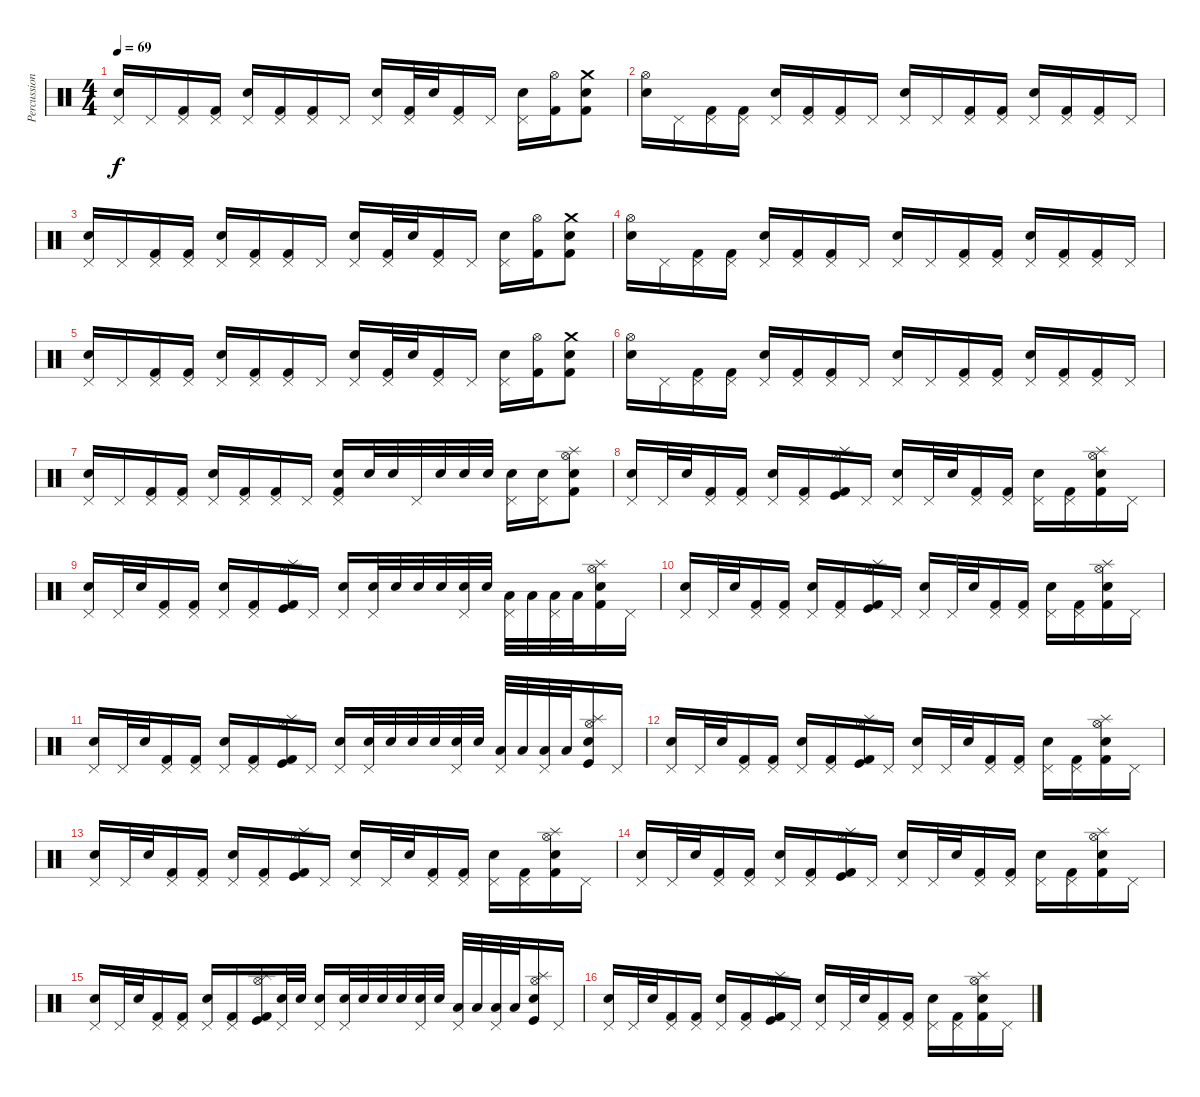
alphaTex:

\track ("Percussion" "Percussion") {instrument percussion}
\staff {score}
\articulation defaults
\ts (4 4)
\tempo 69
\clef neutral
\ks c
("Pedal Hi-Hat (hit)" "Snare (hit) 2").16{dy f} "Pedal Hi-Hat (hit)".16 ("Pedal Hi-Hat (hit)" "Kick (hit) 2").16 ("Pedal Hi-Hat (hit)" "Kick (hit) 2").16 ("Pedal Hi-Hat (hit)" "Snare (hit) 2").16 ("Pedal Hi-Hat (hit)" "Kick (hit) 2").16 ("Pedal Hi-Hat (hit)" "Kick (hit) 2").16 "Pedal Hi-Hat (hit)".16 ("Pedal Hi-Hat (hit)" "Snare (hit) 2").16 ("Pedal Hi-Hat (hit)" "Kick (hit) 2").32 "Snare (hit) 2".32 ("Pedal Hi-Hat (hit)" "Kick (hit) 2").16 "Pedal Hi-Hat (hit)".16 ("Pedal Hi-Hat (hit)" "Snare (hit) 2").16 ("Hi-Hat (open)" "Kick (hit) 2").16 ("Crash medium (hit)" "Snare (hit) 2" "Kick (hit) 2").8 |
("Hi-Hat (open)" "Snare (hit) 2").16 "Pedal Hi-Hat (hit)".16 ("Pedal Hi-Hat (hit)" "Kick (hit) 2").16 ("Pedal Hi-Hat (hit)" "Kick (hit) 2").16 ("Pedal Hi-Hat (hit)" "Snare (hit) 2").16 ("Pedal Hi-Hat (hit)" "Kick (hit) 2").16 ("Pedal Hi-Hat (hit)" "Kick (hit) 2").16 "Pedal Hi-Hat (hit)".16 ("Pedal Hi-Hat (hit)" "Snare (hit) 2").16 "Pedal Hi-Hat (hit)".16 ("Pedal Hi-Hat (hit)" "Kick (hit) 2").16 ("Pedal Hi-Hat (hit)" "Kick (hit) 2").16 ("Pedal Hi-Hat (hit)" "Snare (hit) 2").16 ("Pedal Hi-Hat (hit)" "Kick (hit) 2").16 ("Pedal Hi-Hat (hit)" "Kick (hit) 2").16 "Pedal Hi-Hat (hit)".16 |
("Pedal Hi-Hat (hit)" "Snare (hit) 2").16 "Pedal Hi-Hat (hit)".16 ("Pedal Hi-Hat (hit)" "Kick (hit) 2").16 ("Pedal Hi-Hat (hit)" "Kick (hit) 2").16 ("Pedal Hi-Hat (hit)" "Snare (hit) 2").16 ("Pedal Hi-Hat (hit)" "Kick (hit) 2").16 ("Pedal Hi-Hat (hit)" "Kick (hit) 2").16 "Pedal Hi-Hat (hit)".16 ("Pedal Hi-Hat (hit)" "Snare (hit) 2").16 ("Pedal Hi-Hat (hit)" "Kick (hit) 2").32 "Snare (hit) 2".32 ("Pedal Hi-Hat (hit)" "Kick (hit) 2").16 "Pedal Hi-Hat (hit)".16 ("Pedal Hi-Hat (hit)" "Snare (hit) 2").16 ("Hi-Hat (open)" "Kick (hit) 2").16 ("Crash medium (hit)" "Snare (hit) 2" "Kick (hit) 2").8 |
("Hi-Hat (open)" "Snare (hit) 2").16 "Pedal Hi-Hat (hit)".16 ("Pedal Hi-Hat (hit)" "Kick (hit) 2").16 ("Pedal Hi-Hat (hit)" "Kick (hit) 2").16 ("Pedal Hi-Hat (hit)" "Snare (hit) 2").16 ("Pedal Hi-Hat (hit)" "Kick (hit) 2").16 ("Pedal Hi-Hat (hit)" "Kick (hit) 2").16 "Pedal Hi-Hat (hit)".16 ("Pedal Hi-Hat (hit)" "Snare (hit) 2").16 "Pedal Hi-Hat (hit)".16 ("Pedal Hi-Hat (hit)" "Kick (hit) 2").16 ("Pedal Hi-Hat (hit)" "Kick (hit) 2").16 ("Pedal Hi-Hat (hit)" "Snare (hit) 2").16 ("Pedal Hi-Hat (hit)" "Kick (hit) 2").16 ("Pedal Hi-Hat (hit)" "Kick (hit) 2").16 "Pedal Hi-Hat (hit)".16 |
("Pedal Hi-Hat (hit)" "Snare (hit) 2").16 "Pedal Hi-Hat (hit)".16 ("Pedal Hi-Hat (hit)" "Kick (hit) 2").16 ("Pedal Hi-Hat (hit)" "Kick (hit) 2").16 ("Pedal Hi-Hat (hit)" "Snare (hit) 2").16 ("Pedal Hi-Hat (hit)" "Kick (hit) 2").16 ("Pedal Hi-Hat (hit)" "Kick (hit) 2").16 "Pedal Hi-Hat (hit)".16 ("Pedal Hi-Hat (hit)" "Snare (hit) 2").16 ("Pedal Hi-Hat (hit)" "Kick (hit) 2").32 "Snare (hit) 2".32 ("Pedal Hi-Hat (hit)" "Kick (hit) 2").16 "Pedal Hi-Hat (hit)".16 ("Pedal Hi-Hat (hit)" "Snare (hit) 2").16 ("Hi-Hat (open)" "Kick (hit) 2").16 ("Crash medium (hit)" "Snare (hit) 2" "Kick (hit) 2").8 |
("Hi-Hat (open)" "Snare (hit) 2").16 "Pedal Hi-Hat (hit)".16 ("Pedal Hi-Hat (hit)" "Kick (hit) 2").16 ("Pedal Hi-Hat (hit)" "Kick (hit) 2").16 ("Pedal Hi-Hat (hit)" "Snare (hit) 2").16 ("Pedal Hi-Hat (hit)" "Kick (hit) 2").16 ("Pedal Hi-Hat (hit)" "Kick (hit) 2").16 "Pedal Hi-Hat (hit)".16 ("Pedal Hi-Hat (hit)" "Snare (hit) 2").16 "Pedal Hi-Hat (hit)".16 ("Pedal Hi-Hat (hit)" "Kick (hit) 2").16 ("Pedal Hi-Hat (hit)" "Kick (hit) 2").16 ("Pedal Hi-Hat (hit)" "Snare (hit) 2").16 ("Pedal Hi-Hat (hit)" "Kick (hit) 2").16 ("Pedal Hi-Hat (hit)" "Kick (hit) 2").16 "Pedal Hi-Hat (hit)".16 |
("Pedal Hi-Hat (hit)" "Snare (hit) 2").16 "Pedal Hi-Hat (hit)".16 ("Pedal Hi-Hat (hit)" "Kick (hit) 2").16 ("Pedal Hi-Hat (hit)" "Kick (hit) 2").16 ("Pedal Hi-Hat (hit)" "Snare (hit) 2").16 ("Pedal Hi-Hat (hit)" "Kick (hit) 2").16 ("Pedal Hi-Hat (hit)" "Kick (hit) 2").16 "Pedal Hi-Hat (hit)".16 ("Pedal Hi-Hat (hit)" "Snare (hit) 2" "Kick (hit) 2").16 "Snare (hit) 2".32 "Snare (hit) 2".32 "Pedal Hi-Hat (hit)".32 "Snare (hit) 2".32 "Snare (hit) 2".32 "Snare (hit) 2".32 ("Pedal Hi-Hat (hit)" "Snare (hit) 2").16 ("Pedal Hi-Hat (hit)" "Snare (hit) 2").16 ("Splash (hit)" "Hi-Hat (open)" "Snare (hit) 2" "Kick (hit) 2").8 |
("Pedal Hi-Hat (hit)" "Snare (hit) 2").16 "Pedal Hi-Hat (hit)".32 "Snare (hit) 2".32 ("Pedal Hi-Hat (hit)" "Kick (hit) 2").16 ("Pedal Hi-Hat (hit)" "Kick (hit) 2").16 ("Pedal Hi-Hat (hit)" "Snare (hit) 2").16 ("Pedal Hi-Hat (hit)" "Kick (hit) 2").16 ("Splash (hit)" "Hi-Hat (open)" "Kick (hit)" "Kick (hit) 2").16 "Pedal Hi-Hat (hit)".16 ("Pedal Hi-Hat (hit)" "Snare (hit) 2").16 "Pedal Hi-Hat (hit)".32 "Snare (hit) 2".32 ("Pedal Hi-Hat (hit)" "Kick (hit) 2").16 ("Pedal Hi-Hat (hit)" "Kick (hit) 2").16 ("Pedal Hi-Hat (hit)" "Snare (hit) 2").16 ("Pedal Hi-Hat (hit)" "Kick (hit) 2").16 ("Splash (hit)" "Hi-Hat (open)" "Snare (hit) 2" "Kick (hit) 2").16 "Pedal Hi-Hat (hit)".16 |
("Pedal Hi-Hat (hit)" "Snare (hit) 2").16 "Pedal Hi-Hat (hit)".32 "Snare (hit) 2".32 ("Pedal Hi-Hat (hit)" "Kick (hit) 2").16 ("Pedal Hi-Hat (hit)" "Kick (hit) 2").16 ("Pedal Hi-Hat (hit)" "Snare (hit) 2").16 ("Pedal Hi-Hat (hit)" "Kick (hit) 2").16 ("Splash (hit)" "Hi-Hat (open)" "Kick (hit)" "Kick (hit) 2").16 "Pedal Hi-Hat (hit)".16 ("Pedal Hi-Hat (hit)" "Snare (hit) 2").16 ("Pedal Hi-Hat (hit)" "Snare (hit) 2").32 "Snare (hit) 2".32 "Snare (hit) 2".32 "Snare (hit) 2".32 ("Pedal Hi-Hat (hit)" "Snare (hit) 2").32 "Snare (hit) 2".32 ("Pedal Hi-Hat (hit)" "Low Floor Tom (hit)").32 "Low Floor Tom (hit)".32 ("Pedal Hi-Hat (hit)" "Low Floor Tom (hit)").32 "Low Floor Tom (hit)".32 ("Splash (hit)" "Hi-Hat (open)" "Snare (hit) 2" "Kick (hit) 2").16 "Pedal Hi-Hat (hit)".16 |
("Pedal Hi-Hat (hit)" "Snare (hit) 2").16 "Pedal Hi-Hat (hit)".32 "Snare (hit) 2".32 ("Pedal Hi-Hat (hit)" "Kick (hit) 2").16 ("Pedal Hi-Hat (hit)" "Kick (hit) 2").16 ("Pedal Hi-Hat (hit)" "Snare (hit) 2").16 ("Pedal Hi-Hat (hit)" "Kick (hit) 2").16 ("Splash (hit)" "Hi-Hat (open)" "Kick (hit)" "Kick (hit) 2").16 "Pedal Hi-Hat (hit)".16 ("Pedal Hi-Hat (hit)" "Snare (hit) 2").16 "Pedal Hi-Hat (hit)".32 "Snare (hit) 2".32 ("Pedal Hi-Hat (hit)" "Kick (hit) 2").16 ("Pedal Hi-Hat (hit)" "Kick (hit) 2").16 ("Pedal Hi-Hat (hit)" "Snare (hit) 2").16 ("Pedal Hi-Hat (hit)" "Kick (hit) 2").16 ("Splash (hit)" "Hi-Hat (open)" "Snare (hit) 2" "Kick (hit) 2").16 "Pedal Hi-Hat (hit)".16 |
("Pedal Hi-Hat (hit)" "Snare (hit) 2").16 "Pedal Hi-Hat (hit)".32 "Snare (hit) 2".32 ("Pedal Hi-Hat (hit)" "Kick (hit) 2").16 ("Pedal Hi-Hat (hit)" "Kick (hit) 2").16 ("Pedal Hi-Hat (hit)" "Snare (hit) 2").16 ("Pedal Hi-Hat (hit)" "Kick (hit) 2").16 ("Splash (hit)" "Hi-Hat (open)" "Kick (hit)" "Kick (hit) 2").16 "Pedal Hi-Hat (hit)".16 ("Pedal Hi-Hat (hit)" "Snare (hit) 2").16 ("Pedal Hi-Hat (hit)" "Snare (hit) 2").32 "Snare (hit) 2".32 "Snare (hit) 2".32 "Snare (hit) 2".32 ("Pedal Hi-Hat (hit)" "Snare (hit) 2").32 "Snare (hit) 2".32 ("Pedal Hi-Hat (hit)" "Low Floor Tom (hit)").32 "Low Floor Tom (hit)".32 ("Pedal Hi-Hat (hit)" "Low Floor Tom (hit)").32 "Low Floor Tom (hit)".32 ("Splash (hit)" "Hi-Hat (open)" "Snare (hit) 2" "Kick (hit)").16 "Pedal Hi-Hat (hit)".16 |
("Pedal Hi-Hat (hit)" "Snare (hit) 2").16 "Pedal Hi-Hat (hit)".32 "Snare (hit) 2".32 ("Pedal Hi-Hat (hit)" "Kick (hit) 2").16 ("Pedal Hi-Hat (hit)" "Kick (hit) 2").16 ("Pedal Hi-Hat (hit)" "Snare (hit) 2").16 ("Pedal Hi-Hat (hit)" "Kick (hit) 2").16 ("Splash (hit)" "Hi-Hat (open)" "Kick (hit)" "Kick (hit) 2").16 "Pedal Hi-Hat (hit)".16 ("Pedal Hi-Hat (hit)" "Snare (hit) 2").16 "Pedal Hi-Hat (hit)".32 "Snare (hit) 2".32 ("Pedal Hi-Hat (hit)" "Kick (hit) 2").16 ("Pedal Hi-Hat (hit)" "Kick (hit) 2").16 ("Pedal Hi-Hat (hit)" "Snare (hit) 2").16 ("Pedal Hi-Hat (hit)" "Kick (hit) 2").16 ("Splash (hit)" "Hi-Hat (open)" "Snare (hit) 2" "Kick (hit) 2").16 "Pedal Hi-Hat (hit)".16 |
("Pedal Hi-Hat (hit)" "Snare (hit) 2").16 "Pedal Hi-Hat (hit)".32 "Snare (hit) 2".32 ("Pedal Hi-Hat (hit)" "Kick (hit) 2").16 ("Pedal Hi-Hat (hit)" "Kick (hit) 2").16 ("Pedal Hi-Hat (hit)" "Snare (hit) 2").16 ("Pedal Hi-Hat (hit)" "Kick (hit) 2").16 ("Splash (hit)" "Hi-Hat (open)" "Kick (hit)" "Kick (hit) 2").16 "Pedal Hi-Hat (hit)".16 ("Pedal Hi-Hat (hit)" "Snare (hit) 2").16 "Pedal Hi-Hat (hit)".32 "Snare (hit) 2".32 ("Pedal Hi-Hat (hit)" "Kick (hit) 2").16 ("Pedal Hi-Hat (hit)" "Kick (hit) 2").16 ("Pedal Hi-Hat (hit)" "Snare (hit) 2").16 ("Pedal Hi-Hat (hit)" "Kick (hit) 2").16 ("Splash (hit)" "Hi-Hat (open)" "Snare (hit) 2" "Kick (hit) 2").16 "Pedal Hi-Hat (hit)".16 |
("Pedal Hi-Hat (hit)" "Snare (hit) 2").16 "Pedal Hi-Hat (hit)".32 "Snare (hit) 2".32 ("Pedal Hi-Hat (hit)" "Kick (hit) 2").16 ("Pedal Hi-Hat (hit)" "Kick (hit) 2").16 ("Pedal Hi-Hat (hit)" "Snare (hit) 2").16 ("Pedal Hi-Hat (hit)" "Kick (hit) 2").16 ("Splash (hit)" "Hi-Hat (open)" "Kick (hit)" "Kick (hit) 2").16 "Pedal Hi-Hat (hit)".16 ("Pedal Hi-Hat (hit)" "Snare (hit) 2").16 "Pedal Hi-Hat (hit)".32 "Snare (hit) 2".32 ("Pedal Hi-Hat (hit)" "Kick (hit) 2").16 ("Pedal Hi-Hat (hit)" "Kick (hit) 2").16 ("Pedal Hi-Hat (hit)" "Snare (hit) 2").16 ("Pedal Hi-Hat (hit)" "Kick (hit) 2").16 ("Splash (hit)" "Hi-Hat (open)" "Snare (hit) 2" "Kick (hit) 2").16 "Pedal Hi-Hat (hit)".16 |
("Pedal Hi-Hat (hit)" "Snare (hit) 2").16 "Pedal Hi-Hat (hit)".32 "Snare (hit) 2".32 ("Pedal Hi-Hat (hit)" "Kick (hit) 2").16 ("Pedal Hi-Hat (hit)" "Kick (hit) 2").16 ("Pedal Hi-Hat (hit)" "Snare (hit) 2").16 ("Pedal Hi-Hat (hit)" "Kick (hit) 2").16 ("Splash (hit)" "Hi-Hat (open)" "Kick (hit)" "Kick (hit) 2").16 ("Pedal Hi-Hat (hit)" "Snare (hit) 2").32 "Snare (hit) 2".32 ("Pedal Hi-Hat (hit)" "Snare (hit) 2").16 ("Pedal Hi-Hat (hit)" "Snare (hit) 2").32 "Snare (hit) 2".32 "Snare (hit) 2".32 "Snare (hit) 2".32 ("Pedal Hi-Hat (hit)" "Snare (hit) 2").32 "Snare (hit) 2".32 ("Pedal Hi-Hat (hit)" "Low Floor Tom (hit)").32 "Low Floor Tom (hit)".32 ("Pedal Hi-Hat (hit)" "Low Floor Tom (hit)").32 "Low Floor Tom (hit)".32 ("Splash (hit)" "Hi-Hat (open)" "Snare (hit) 2" "Kick (hit)").16 "Pedal Hi-Hat (hit)".16 |
("Pedal Hi-Hat (hit)" "Snare (hit) 2").16 "Pedal Hi-Hat (hit)".32 "Snare (hit) 2".32 ("Pedal Hi-Hat (hit)" "Kick (hit) 2").16 ("Pedal Hi-Hat (hit)" "Kick (hit) 2").16 ("Pedal Hi-Hat (hit)" "Snare (hit) 2").16 ("Pedal Hi-Hat (hit)" "Kick (hit) 2").16 ("Splash (hit)" "Hi-Hat (open)" "Kick (hit)" "Kick (hit) 2").16 "Pedal Hi-Hat (hit)".16 ("Pedal Hi-Hat (hit)" "Snare (hit) 2").16 "Pedal Hi-Hat (hit)".32 "Snare (hit) 2".32 ("Pedal Hi-Hat (hit)" "Kick (hit) 2").16 ("Pedal Hi-Hat (hit)" "Kick (hit) 2").16 ("Pedal Hi-Hat (hit)" "Snare (hit) 2").16 ("Pedal Hi-Hat (hit)" "Kick (hit) 2").16 ("Splash (hit)" "Hi-Hat (open)" "Snare (hit) 2" "Kick (hit) 2").16 "Pedal Hi-Hat (hit)".16
